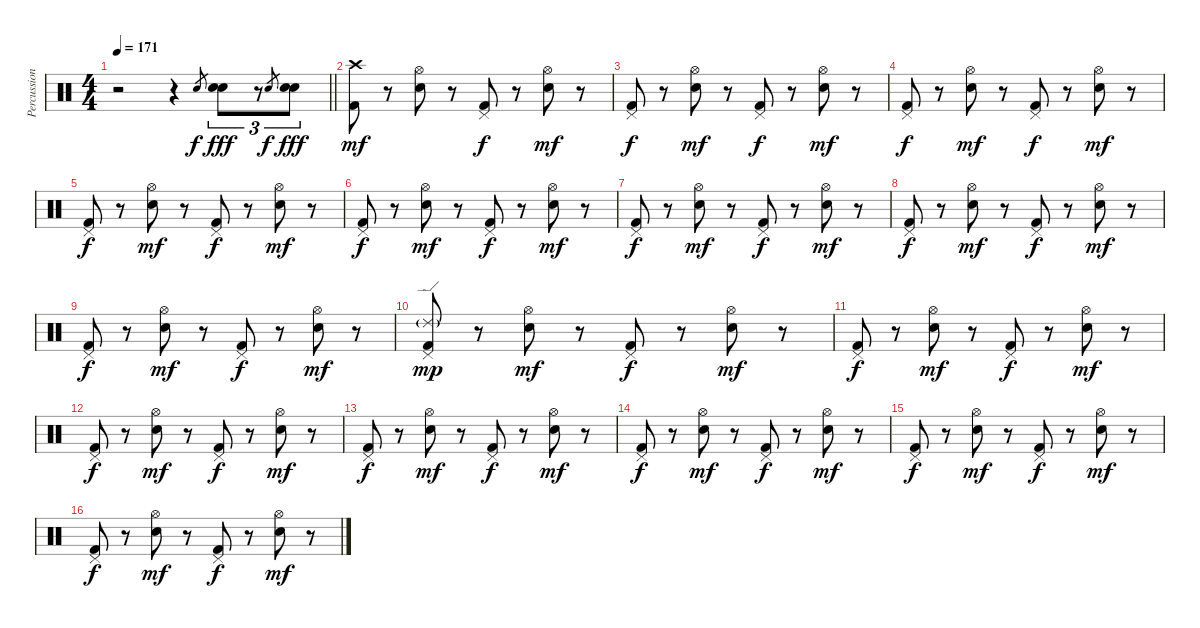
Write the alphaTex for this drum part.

\track ("Percussions" "Percussion") {instrument percussion}
\staff {score}
\articulation defaults
\ts (4 4)
\tempo 171
\clef neutral
\barLineRight lightlight
\ks c
r.2{dy f} r.4 "Electric Snare (hit)".8{gr} ("Electric Snare (hit)" "Electric Snare (hit)").8{tu (3 2) dy fff} r.8{tu (3 2)} "Electric Snare (hit)".8{gr dy f} ("Electric Snare (hit)" "Electric Snare (hit)").8{tu (3 2) dy fff} |
\section ("" "")
("Kick (hit) 2" "Crash high (hit)").8{dy mf} r.8 ("Electric Snare (hit)" "Hi-Hat (open)").8 r.8 ("Kick (hit) 2" "Pedal Hi-Hat (hit)").8{dy f} r.8 ("Electric Snare (hit)" "Hi-Hat (open)").8{dy mf} r.8 |
("Kick (hit) 2" "Pedal Hi-Hat (hit)").8{dy f} r.8 ("Electric Snare (hit)" "Hi-Hat (open)").8{dy mf} r.8 ("Kick (hit) 2" "Pedal Hi-Hat (hit)").8{dy f} r.8 ("Electric Snare (hit)" "Hi-Hat (open)").8{dy mf} r.8 |
("Kick (hit) 2" "Pedal Hi-Hat (hit)").8{dy f} r.8 ("Electric Snare (hit)" "Hi-Hat (open)").8{dy mf} r.8 ("Kick (hit) 2" "Pedal Hi-Hat (hit)").8{dy f} r.8 ("Electric Snare (hit)" "Hi-Hat (open)").8{dy mf} r.8 |
("Kick (hit) 2" "Pedal Hi-Hat (hit)").8{dy f} r.8 ("Electric Snare (hit)" "Hi-Hat (open)").8{dy mf} r.8 ("Kick (hit) 2" "Pedal Hi-Hat (hit)").8{dy f} r.8 ("Electric Snare (hit)" "Hi-Hat (open)").8{dy mf} r.8 |
("Kick (hit) 2" "Pedal Hi-Hat (hit)").8{dy f} r.8 ("Electric Snare (hit)" "Hi-Hat (open)").8{dy mf} r.8 ("Kick (hit) 2" "Pedal Hi-Hat (hit)").8{dy f} r.8 ("Electric Snare (hit)" "Hi-Hat (open)").8{dy mf} r.8 |
("Kick (hit) 2" "Pedal Hi-Hat (hit)").8{dy f} r.8 ("Electric Snare (hit)" "Hi-Hat (open)").8{dy mf} r.8 ("Kick (hit) 2" "Pedal Hi-Hat (hit)").8{dy f} r.8 ("Electric Snare (hit)" "Hi-Hat (open)").8{dy mf} r.8 |
("Kick (hit) 2" "Pedal Hi-Hat (hit)").8{dy f} r.8 ("Electric Snare (hit)" "Hi-Hat (open)").8{dy mf} r.8 ("Kick (hit) 2" "Pedal Hi-Hat (hit)").8{dy f} r.8 ("Electric Snare (hit)" "Hi-Hat (open)").8{dy mf} r.8 |
("Kick (hit) 2" "Pedal Hi-Hat (hit)").8{dy f} r.8 ("Electric Snare (hit)" "Hi-Hat (open)").8{dy mf} r.8 ("Kick (hit) 2" "Pedal Hi-Hat (hit)").8{dy f} r.8 ("Electric Snare (hit)" "Hi-Hat (open)").8{dy mf} r.8 |
("Kick (hit) 2" "Pedal Hi-Hat (hit)" "Ride (edge) 2"{g}).8{dy mp} r.8 ("Electric Snare (hit)" "Hi-Hat (open)").8{dy mf} r.8 ("Kick (hit) 2" "Pedal Hi-Hat (hit)").8{dy f} r.8 ("Electric Snare (hit)" "Hi-Hat (open)").8{dy mf} r.8 |
("Kick (hit) 2" "Pedal Hi-Hat (hit)").8{dy f} r.8 ("Electric Snare (hit)" "Hi-Hat (open)").8{dy mf} r.8 ("Kick (hit) 2" "Pedal Hi-Hat (hit)").8{dy f} r.8 ("Electric Snare (hit)" "Hi-Hat (open)").8{dy mf} r.8 |
("Kick (hit) 2" "Pedal Hi-Hat (hit)").8{dy f} r.8 ("Electric Snare (hit)" "Hi-Hat (open)").8{dy mf} r.8 ("Kick (hit) 2" "Pedal Hi-Hat (hit)").8{dy f} r.8 ("Electric Snare (hit)" "Hi-Hat (open)").8{dy mf} r.8 |
("Kick (hit) 2" "Pedal Hi-Hat (hit)").8{dy f} r.8 ("Electric Snare (hit)" "Hi-Hat (open)").8{dy mf} r.8 ("Kick (hit) 2" "Pedal Hi-Hat (hit)").8{dy f} r.8 ("Electric Snare (hit)" "Hi-Hat (open)").8{dy mf} r.8 |
("Kick (hit) 2" "Pedal Hi-Hat (hit)").8{dy f} r.8 ("Electric Snare (hit)" "Hi-Hat (open)").8{dy mf} r.8 ("Kick (hit) 2" "Pedal Hi-Hat (hit)").8{dy f} r.8 ("Electric Snare (hit)" "Hi-Hat (open)").8{dy mf} r.8 |
("Kick (hit) 2" "Pedal Hi-Hat (hit)").8{dy f} r.8 ("Electric Snare (hit)" "Hi-Hat (open)").8{dy mf} r.8 ("Kick (hit) 2" "Pedal Hi-Hat (hit)").8{dy f} r.8 ("Electric Snare (hit)" "Hi-Hat (open)").8{dy mf} r.8 |
("Kick (hit) 2" "Pedal Hi-Hat (hit)").8{dy f} r.8 ("Electric Snare (hit)" "Hi-Hat (open)").8{dy mf} r.8 ("Kick (hit) 2" "Pedal Hi-Hat (hit)").8{dy f} r.8 ("Electric Snare (hit)" "Hi-Hat (open)").8{dy mf} r.8
